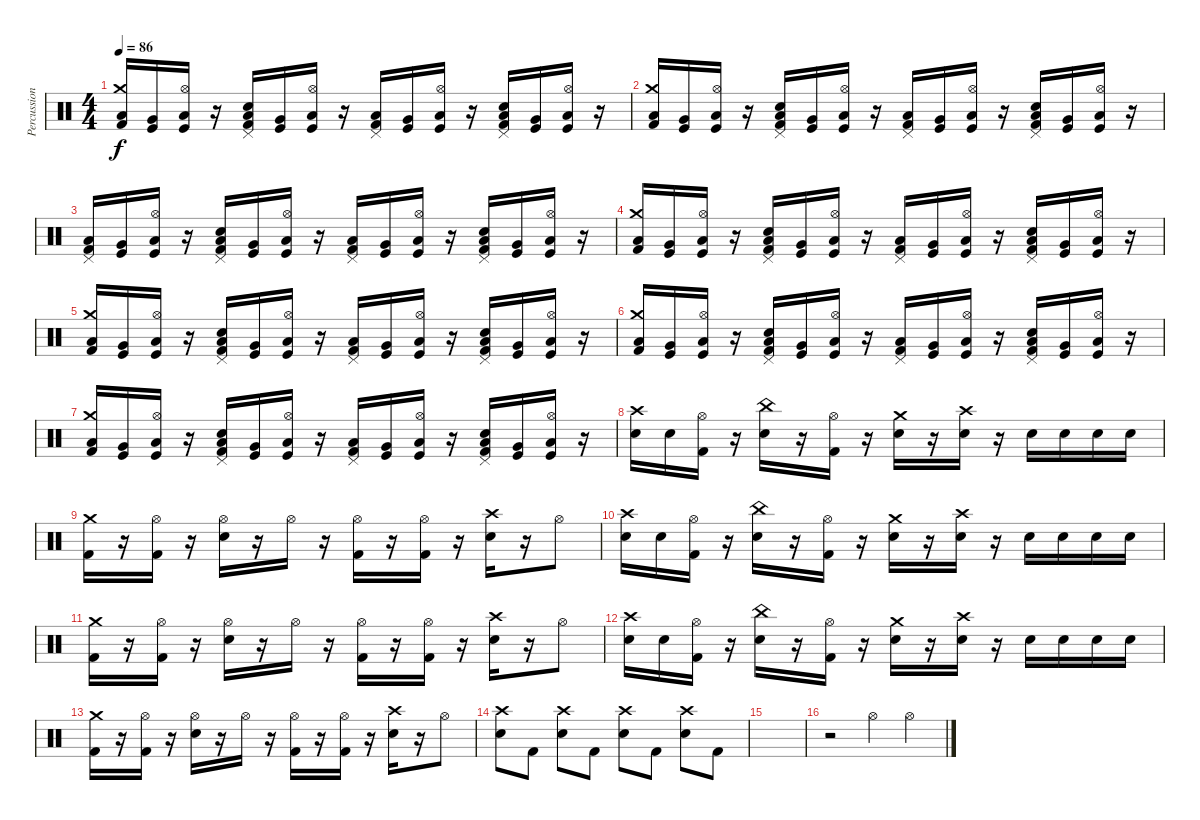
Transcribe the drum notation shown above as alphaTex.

\track ("Percussions" "Percussion") {instrument percussion}
\staff {score}
\articulation defaults
\ts (4 4)
\tempo 86
\clef neutral
\ks c
("Kick (hit) 2" "Crash medium (hit)" "Low Tom (hit)").16{dy f} ("Very Low Tom (hit)" "Kick (hit)").16 ("Hi-Hat (open)" "Low Floor Tom (hit)" "Kick (hit)").16 r.16 ("Kick (hit) 2" "Pedal Hi-Hat (hit)" "Snare (hit) 2" "Low Tom (hit)").16 ("Kick (hit)" "Very Low Tom (hit)").16 ("Hi-Hat (open)" "Kick (hit)" "Low Floor Tom (hit)").16 r.16 ("Pedal Hi-Hat (hit)" "Kick (hit) 2" "Low Tom (hit)").16 ("Kick (hit)" "Very Low Tom (hit)").16 ("Hi-Hat (open)" "Kick (hit)" "Low Floor Tom (hit)").16 r.16 ("Kick (hit) 2" "Pedal Hi-Hat (hit)" "Snare (hit) 2" "Low Tom (hit)").16 ("Kick (hit)" "Very Low Tom (hit)").16 ("Hi-Hat (open)" "Kick (hit)" "Low Floor Tom (hit)").16 r.16 |
("Kick (hit) 2" "Crash medium (hit)" "Low Tom (hit)").16 ("Very Low Tom (hit)" "Kick (hit)").16 ("Hi-Hat (open)" "Low Floor Tom (hit)" "Kick (hit)").16 r.16 ("Kick (hit) 2" "Pedal Hi-Hat (hit)" "Snare (hit) 2" "Low Tom (hit)").16 ("Kick (hit)" "Very Low Tom (hit)").16 ("Hi-Hat (open)" "Kick (hit)" "Low Floor Tom (hit)").16 r.16 ("Pedal Hi-Hat (hit)" "Kick (hit) 2" "Low Tom (hit)").16 ("Kick (hit)" "Very Low Tom (hit)").16 ("Hi-Hat (open)" "Kick (hit)" "Low Floor Tom (hit)").16 r.16 ("Kick (hit) 2" "Pedal Hi-Hat (hit)" "Snare (hit) 2" "Low Tom (hit)").16 ("Kick (hit)" "Very Low Tom (hit)").16 ("Hi-Hat (open)" "Kick (hit)" "Low Floor Tom (hit)").16 r.16 |
("Kick (hit) 2" "Pedal Hi-Hat (hit)" "Low Tom (hit)").16 ("Kick (hit)" "Very Low Tom (hit)").16 ("Hi-Hat (open)" "Kick (hit)" "Low Floor Tom (hit)").16 r.16 ("Kick (hit) 2" "Pedal Hi-Hat (hit)" "Snare (hit) 2" "Low Tom (hit)").16 ("Kick (hit)" "Very Low Tom (hit)").16 ("Hi-Hat (open)" "Kick (hit)" "Low Floor Tom (hit)").16 r.16 ("Pedal Hi-Hat (hit)" "Kick (hit) 2" "Low Tom (hit)").16 ("Kick (hit)" "Very Low Tom (hit)").16 ("Hi-Hat (open)" "Kick (hit)" "Low Floor Tom (hit)").16 r.16 ("Kick (hit) 2" "Pedal Hi-Hat (hit)" "Snare (hit) 2" "Low Tom (hit)").16 ("Kick (hit)" "Very Low Tom (hit)").16 ("Hi-Hat (open)" "Kick (hit)" "Low Floor Tom (hit)").16 r.16 |
("Kick (hit) 2" "Crash medium (hit)" "Low Tom (hit)").16 ("Kick (hit)" "Very Low Tom (hit)").16 ("Hi-Hat (open)" "Kick (hit)" "Low Floor Tom (hit)").16 r.16 ("Kick (hit) 2" "Pedal Hi-Hat (hit)" "Snare (hit) 2" "Low Tom (hit)").16 ("Kick (hit)" "Very Low Tom (hit)").16 ("Hi-Hat (open)" "Kick (hit)" "Low Floor Tom (hit)").16 r.16 ("Pedal Hi-Hat (hit)" "Kick (hit) 2" "Low Tom (hit)").16 ("Kick (hit)" "Very Low Tom (hit)").16 ("Hi-Hat (open)" "Kick (hit)" "Low Floor Tom (hit)").16 r.16 ("Kick (hit) 2" "Pedal Hi-Hat (hit)" "Snare (hit) 2" "Low Tom (hit)").16 ("Kick (hit)" "Very Low Tom (hit)").16 ("Hi-Hat (open)" "Kick (hit)" "Low Floor Tom (hit)").16 r.16 |
("Kick (hit) 2" "Crash medium (hit)" "Low Tom (hit)").16 ("Kick (hit)" "Very Low Tom (hit)").16 ("Hi-Hat (open)" "Kick (hit)" "Low Floor Tom (hit)").16 r.16 ("Kick (hit) 2" "Pedal Hi-Hat (hit)" "Snare (hit) 2" "Low Tom (hit)").16 ("Kick (hit)" "Very Low Tom (hit)").16 ("Hi-Hat (open)" "Kick (hit)" "Low Floor Tom (hit)").16 r.16 ("Pedal Hi-Hat (hit)" "Kick (hit) 2" "Low Tom (hit)").16 ("Kick (hit)" "Very Low Tom (hit)").16 ("Hi-Hat (open)" "Kick (hit)" "Low Floor Tom (hit)").16 r.16 ("Kick (hit) 2" "Pedal Hi-Hat (hit)" "Snare (hit) 2" "Low Tom (hit)").16 ("Kick (hit)" "Very Low Tom (hit)").16 ("Hi-Hat (open)" "Kick (hit)" "Low Floor Tom (hit)").16 r.16 |
("Kick (hit) 2" "Crash medium (hit)" "Low Tom (hit)").16 ("Kick (hit)" "Very Low Tom (hit)").16 ("Hi-Hat (open)" "Kick (hit)" "Low Floor Tom (hit)").16 r.16 ("Kick (hit) 2" "Pedal Hi-Hat (hit)" "Snare (hit) 2" "Low Tom (hit)").16 ("Kick (hit)" "Very Low Tom (hit)").16 ("Hi-Hat (open)" "Kick (hit)" "Low Floor Tom (hit)").16 r.16 ("Pedal Hi-Hat (hit)" "Kick (hit) 2" "Low Tom (hit)").16 ("Kick (hit)" "Very Low Tom (hit)").16 ("Hi-Hat (open)" "Kick (hit)" "Low Floor Tom (hit)").16 r.16 ("Kick (hit) 2" "Pedal Hi-Hat (hit)" "Snare (hit) 2" "Low Tom (hit)").16 ("Kick (hit)" "Very Low Tom (hit)").16 ("Hi-Hat (open)" "Kick (hit)" "Low Floor Tom (hit)").16 r.16 |
("Kick (hit) 2" "Crash medium (hit)" "Low Tom (hit)").16 ("Kick (hit)" "Very Low Tom (hit)").16 ("Hi-Hat (open)" "Kick (hit)" "Low Floor Tom (hit)").16 r.16 ("Kick (hit) 2" "Pedal Hi-Hat (hit)" "Snare (hit) 2" "Low Tom (hit)").16 ("Kick (hit)" "Very Low Tom (hit)").16 ("Hi-Hat (open)" "Kick (hit)" "Low Floor Tom (hit)").16 r.16 ("Pedal Hi-Hat (hit)" "Kick (hit) 2" "Low Tom (hit)").16 ("Kick (hit)" "Very Low Tom (hit)").16 ("Hi-Hat (open)" "Kick (hit)" "Low Floor Tom (hit)").16 r.16 ("Kick (hit) 2" "Pedal Hi-Hat (hit)" "Snare (hit) 2" "Low Tom (hit)").16 ("Kick (hit)" "Very Low Tom (hit)").16 ("Hi-Hat (open)" "Kick (hit)" "Low Floor Tom (hit)").16 r.16 |
("Snare (hit) 2" "Crash high (hit)").16 "Snare (hit) 2".16 ("Hi-Hat (open)" "Kick (hit) 2").16 r.16 ("China (hit)" "Snare (hit) 2").16 r.16 ("Hi-Hat (open)" "Kick (hit) 2").16 r.16 ("Crash medium (hit)" "Snare (hit) 2").16 r.16 ("Crash high (hit)" "Snare (hit) 2").16 r.16 "Snare (hit) 2".16 "Snare (hit) 2".16 "Snare (hit) 2".16 "Snare (hit) 2".16 |
("Kick (hit) 2" "Crash medium (hit)").16 r.16 ("Kick (hit) 2" "Hi-Hat (open)").16 r.16 ("Snare (hit) 2" "Hi-Hat (open)").16 r.16 "Hi-Hat (open)".16 r.16 ("Hi-Hat (open)" "Kick (hit) 2").16 r.16 ("Kick (hit) 2" "Hi-Hat (open)").16 r.16 ("Snare (hit) 2" "Crash high (hit)").16 r.16 "Hi-Hat (open)".8 |
("Snare (hit) 2" "Crash high (hit)").16 "Snare (hit) 2".16 ("Hi-Hat (open)" "Kick (hit) 2").16 r.16 ("China (hit)" "Snare (hit) 2").16 r.16 ("Hi-Hat (open)" "Kick (hit) 2").16 r.16 ("Crash medium (hit)" "Snare (hit) 2").16 r.16 ("Crash high (hit)" "Snare (hit) 2").16 r.16 "Snare (hit) 2".16 "Snare (hit) 2".16 "Snare (hit) 2".16 "Snare (hit) 2".16 |
("Kick (hit) 2" "Crash medium (hit)").16 r.16 ("Hi-Hat (open)" "Kick (hit) 2").16 r.16 ("Hi-Hat (open)" "Snare (hit) 2").16 r.16 "Hi-Hat (open)".16 r.16 ("Hi-Hat (open)" "Kick (hit) 2").16 r.16 ("Hi-Hat (open)" "Kick (hit) 2").16 r.16 ("Crash high (hit)" "Snare (hit) 2").16 r.16 "Hi-Hat (open)".8 |
("Snare (hit) 2" "Crash high (hit)").16 "Snare (hit) 2".16 ("Hi-Hat (open)" "Kick (hit) 2").16 r.16 ("China (hit)" "Snare (hit) 2").16 r.16 ("Hi-Hat (open)" "Kick (hit) 2").16 r.16 ("Crash medium (hit)" "Snare (hit) 2").16 r.16 ("Crash high (hit)" "Snare (hit) 2").16 r.16 "Snare (hit) 2".16 "Snare (hit) 2".16 "Snare (hit) 2".16 "Snare (hit) 2".16 |
("Crash medium (hit)" "Kick (hit) 2").16 r.16 ("Hi-Hat (open)" "Kick (hit) 2").16 r.16 ("Hi-Hat (open)" "Snare (hit) 2").16 r.16 "Hi-Hat (open)".16 r.16 ("Kick (hit) 2" "Hi-Hat (open)").16 r.16 ("Hi-Hat (open)" "Kick (hit) 2").16 r.16 ("Crash high (hit)" "Snare (hit) 2").16 r.16 "Hi-Hat (open)".8 |
("Crash high (hit)" "Snare (hit) 2").8 "Kick (hit) 2".8 ("Crash high (hit)" "Snare (hit) 2").8 "Kick (hit) 2".8 ("Snare (hit) 2" "Crash high (hit)").8 "Kick (hit) 2".8 ("Crash high (hit)" "Snare (hit) 2").8 "Kick (hit) 2".8 |
|
r.2 "Hi-Hat (open)".4 "Hi-Hat (open)".4
